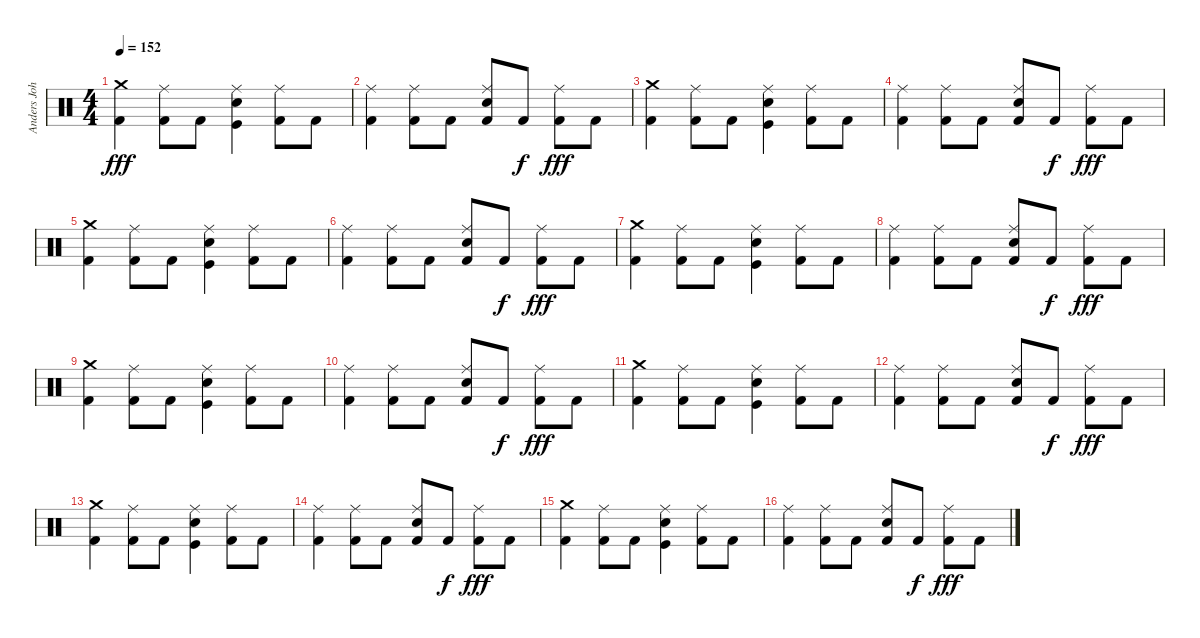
\track ("Anders Johansson (Drums)" "Anders Joh") {instrument percussion}
\staff {score}
\articulation defaults
\ts (4 4)
\tempo 152
\clef neutral
\ks c
("Kick (hit) 2" "Crash medium (hit)").4{dy fff} ("Kick (hit) 2" "Ride (middle)").8 "Kick (hit) 2".8 ("Kick (hit)" "Electric Snare (hit)" "Ride (middle)").4 ("Kick (hit) 2" "Ride (middle)").8 "Kick (hit) 2".8 |
("Kick (hit) 2" "Ride (middle)").4 ("Kick (hit) 2" "Ride (middle)").8 "Kick (hit) 2".8 ("Kick (hit) 2" "Electric Snare (hit)" "Ride (middle)").8 "Kick (hit) 2".8{dy f} ("Kick (hit) 2" "Ride (middle)").8{dy fff} "Kick (hit) 2".8 |
("Kick (hit) 2" "Crash medium (hit)").4 ("Kick (hit) 2" "Ride (middle)").8 "Kick (hit) 2".8 ("Kick (hit)" "Electric Snare (hit)" "Ride (middle)").4 ("Kick (hit) 2" "Ride (middle)").8 "Kick (hit) 2".8 |
("Kick (hit) 2" "Ride (middle)").4 ("Kick (hit) 2" "Ride (middle)").8 "Kick (hit) 2".8 ("Kick (hit) 2" "Electric Snare (hit)" "Ride (middle)").8 "Kick (hit) 2".8{dy f} ("Kick (hit) 2" "Ride (middle)").8{dy fff} "Kick (hit) 2".8 |
("Kick (hit) 2" "Crash medium (hit)").4 ("Kick (hit) 2" "Ride (middle)").8 "Kick (hit) 2".8 ("Kick (hit)" "Electric Snare (hit)" "Ride (middle)").4 ("Kick (hit) 2" "Ride (middle)").8 "Kick (hit) 2".8 |
("Kick (hit) 2" "Ride (middle)").4 ("Kick (hit) 2" "Ride (middle)").8 "Kick (hit) 2".8 ("Kick (hit) 2" "Electric Snare (hit)" "Ride (middle)").8 "Kick (hit) 2".8{dy f} ("Kick (hit) 2" "Ride (middle)").8{dy fff} "Kick (hit) 2".8 |
("Kick (hit) 2" "Crash medium (hit)").4 ("Kick (hit) 2" "Ride (middle)").8 "Kick (hit) 2".8 ("Kick (hit)" "Electric Snare (hit)" "Ride (middle)").4 ("Kick (hit) 2" "Ride (middle)").8 "Kick (hit) 2".8 |
("Kick (hit) 2" "Ride (middle)").4 ("Kick (hit) 2" "Ride (middle)").8 "Kick (hit) 2".8 ("Kick (hit) 2" "Electric Snare (hit)" "Ride (middle)").8 "Kick (hit) 2".8{dy f} ("Kick (hit) 2" "Ride (middle)").8{dy fff} "Kick (hit) 2".8 |
("Kick (hit) 2" "Crash medium (hit)").4 ("Kick (hit) 2" "Ride (middle)").8 "Kick (hit) 2".8 ("Kick (hit)" "Electric Snare (hit)" "Ride (middle)").4 ("Kick (hit) 2" "Ride (middle)").8 "Kick (hit) 2".8 |
("Kick (hit) 2" "Ride (middle)").4 ("Kick (hit) 2" "Ride (middle)").8 "Kick (hit) 2".8 ("Kick (hit) 2" "Electric Snare (hit)" "Ride (middle)").8 "Kick (hit) 2".8{dy f} ("Kick (hit) 2" "Ride (middle)").8{dy fff} "Kick (hit) 2".8 |
("Kick (hit) 2" "Crash medium (hit)").4 ("Kick (hit) 2" "Ride (middle)").8 "Kick (hit) 2".8 ("Kick (hit)" "Electric Snare (hit)" "Ride (middle)").4 ("Kick (hit) 2" "Ride (middle)").8 "Kick (hit) 2".8 |
("Kick (hit) 2" "Ride (middle)").4 ("Kick (hit) 2" "Ride (middle)").8 "Kick (hit) 2".8 ("Kick (hit) 2" "Electric Snare (hit)" "Ride (middle)").8 "Kick (hit) 2".8{dy f} ("Kick (hit) 2" "Ride (middle)").8{dy fff} "Kick (hit) 2".8 |
("Kick (hit) 2" "Crash medium (hit)").4 ("Kick (hit) 2" "Ride (middle)").8 "Kick (hit) 2".8 ("Kick (hit)" "Electric Snare (hit)" "Ride (middle)").4 ("Kick (hit) 2" "Ride (middle)").8 "Kick (hit) 2".8 |
("Kick (hit) 2" "Ride (middle)").4 ("Kick (hit) 2" "Ride (middle)").8 "Kick (hit) 2".8 ("Kick (hit) 2" "Electric Snare (hit)" "Ride (middle)").8 "Kick (hit) 2".8{dy f} ("Kick (hit) 2" "Ride (middle)").8{dy fff} "Kick (hit) 2".8 |
("Kick (hit) 2" "Crash medium (hit)").4 ("Kick (hit) 2" "Ride (middle)").8 "Kick (hit) 2".8 ("Kick (hit)" "Electric Snare (hit)" "Ride (middle)").4 ("Kick (hit) 2" "Ride (middle)").8 "Kick (hit) 2".8 |
("Kick (hit) 2" "Ride (middle)").4 ("Kick (hit) 2" "Ride (middle)").8 "Kick (hit) 2".8 ("Kick (hit) 2" "Electric Snare (hit)" "Ride (middle)").8 "Kick (hit) 2".8{dy f} ("Kick (hit) 2" "Ride (middle)").8{dy fff} "Kick (hit) 2".8
